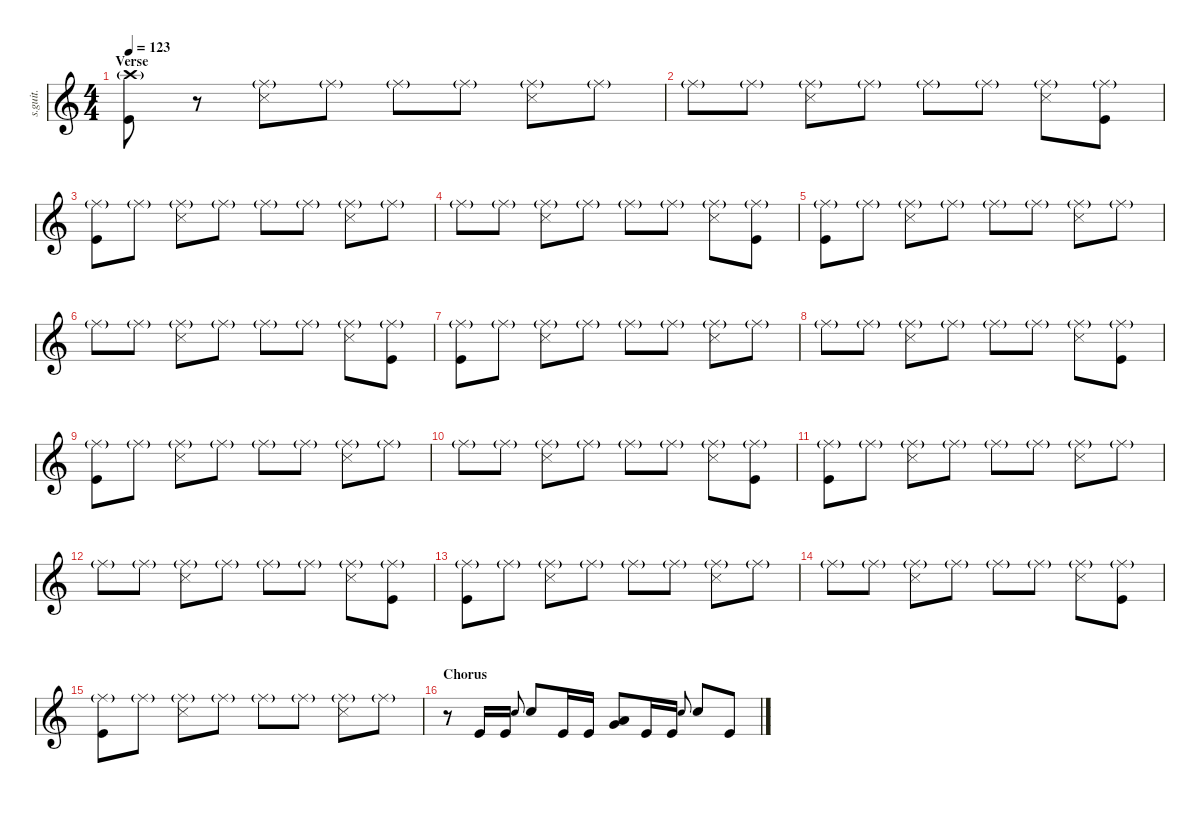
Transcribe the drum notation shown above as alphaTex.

\defaultSystemsLayout 4
\hideDynamics
\bracketExtendMode nobrackets
\track ("Dave Grohl" "s.guit.") {instrument percussion}
\staff {score}
\articulation defaults
\ts (4 4)
\section ("" "Verse")
\tempo 123
\clef g2
\ks c
("Crash high (hit)"{g} "Kick (hit)").8{lyrics (0 "") lyrics (1 "") lyrics (2 "") lyrics (3 "") lyrics (4 "") dy f} r.8 ("Ride (middle)"{g} "Snare (side stick) 3").8{lyrics (0 "") lyrics (1 "") lyrics (2 "") lyrics (3 "") lyrics (4 "")} "Ride (middle)"{g}.8{lyrics (0 "") lyrics (1 "") lyrics (2 "") lyrics (3 "") lyrics (4 "") dy fff} "Ride (middle)"{g}.8{lyrics (0 "") lyrics (1 "") lyrics (2 "") lyrics (3 "") lyrics (4 "")} "Ride (middle)"{g}.8{lyrics (0 "") lyrics (1 "") lyrics (2 "") lyrics (3 "") lyrics (4 "")} ("Ride (middle)"{g} "Snare (side stick) 3").8{lyrics (0 "") lyrics (1 "") lyrics (2 "") lyrics (3 "") lyrics (4 "") dy f} "Ride (middle)"{g}.8{lyrics (0 "") lyrics (1 "") lyrics (2 "") lyrics (3 "") lyrics (4 "") dy fff} |
"Ride (middle)"{g}.8{lyrics (0 "") lyrics (1 "") lyrics (2 "") lyrics (3 "") lyrics (4 "")} "Ride (middle)"{g}.8{lyrics (0 "") lyrics (1 "") lyrics (2 "") lyrics (3 "") lyrics (4 "")} ("Ride (middle)"{g} "Snare (side stick) 3").8{lyrics (0 "") lyrics (1 "") lyrics (2 "") lyrics (3 "") lyrics (4 "") dy f} "Ride (middle)"{g}.8{lyrics (0 "") lyrics (1 "") lyrics (2 "") lyrics (3 "") lyrics (4 "") dy fff} "Ride (middle)"{g}.8{lyrics (0 "") lyrics (1 "") lyrics (2 "") lyrics (3 "") lyrics (4 "")} "Ride (middle)"{g}.8{lyrics (0 "") lyrics (1 "") lyrics (2 "") lyrics (3 "") lyrics (4 "")} ("Ride (middle)"{g} "Snare (side stick) 3").8{lyrics (0 "") lyrics (1 "") lyrics (2 "") lyrics (3 "") lyrics (4 "") dy f} ("Ride (middle)"{g} "Kick (hit)").8{lyrics (0 "") lyrics (1 "") lyrics (2 "") lyrics (3 "") lyrics (4 "")} |
("Ride (middle)"{g} "Kick (hit)").8{lyrics (0 "") lyrics (1 "") lyrics (2 "") lyrics (3 "") lyrics (4 "")} "Ride (middle)"{g}.8{lyrics (0 "") lyrics (1 "") lyrics (2 "") lyrics (3 "") lyrics (4 "") dy fff} ("Ride (middle)"{g} "Snare (side stick) 3").8{lyrics (0 "") lyrics (1 "") lyrics (2 "") lyrics (3 "") lyrics (4 "") dy f} "Ride (middle)"{g}.8{lyrics (0 "") lyrics (1 "") lyrics (2 "") lyrics (3 "") lyrics (4 "") dy fff} "Ride (middle)"{g}.8{lyrics (0 "") lyrics (1 "") lyrics (2 "") lyrics (3 "") lyrics (4 "")} "Ride (middle)"{g}.8{lyrics (0 "") lyrics (1 "") lyrics (2 "") lyrics (3 "") lyrics (4 "")} ("Ride (middle)"{g} "Snare (side stick) 3").8{lyrics (0 "") lyrics (1 "") lyrics (2 "") lyrics (3 "") lyrics (4 "") dy f} "Ride (middle)"{g}.8{lyrics (0 "") lyrics (1 "") lyrics (2 "") lyrics (3 "") lyrics (4 "") dy fff} |
"Ride (middle)"{g}.8{lyrics (0 "") lyrics (1 "") lyrics (2 "") lyrics (3 "") lyrics (4 "")} "Ride (middle)"{g}.8{lyrics (0 "") lyrics (1 "") lyrics (2 "") lyrics (3 "") lyrics (4 "")} ("Ride (middle)"{g} "Snare (side stick) 3").8{lyrics (0 "") lyrics (1 "") lyrics (2 "") lyrics (3 "") lyrics (4 "") dy f} "Ride (middle)"{g}.8{lyrics (0 "") lyrics (1 "") lyrics (2 "") lyrics (3 "") lyrics (4 "") dy fff} "Ride (middle)"{g}.8{lyrics (0 "") lyrics (1 "") lyrics (2 "") lyrics (3 "") lyrics (4 "")} "Ride (middle)"{g}.8{lyrics (0 "") lyrics (1 "") lyrics (2 "") lyrics (3 "") lyrics (4 "")} ("Ride (middle)"{g} "Snare (side stick) 3").8{lyrics (0 "") lyrics (1 "") lyrics (2 "") lyrics (3 "") lyrics (4 "") dy f} ("Ride (middle)"{g} "Kick (hit)").8{lyrics (0 "") lyrics (1 "") lyrics (2 "") lyrics (3 "") lyrics (4 "")} |
("Ride (middle)"{g} "Kick (hit)").8{lyrics (0 "") lyrics (1 "") lyrics (2 "") lyrics (3 "") lyrics (4 "")} "Ride (middle)"{g}.8{lyrics (0 "") lyrics (1 "") lyrics (2 "") lyrics (3 "") lyrics (4 "") dy fff} ("Ride (middle)"{g} "Snare (side stick) 3").8{lyrics (0 "") lyrics (1 "") lyrics (2 "") lyrics (3 "") lyrics (4 "") dy f} "Ride (middle)"{g}.8{lyrics (0 "") lyrics (1 "") lyrics (2 "") lyrics (3 "") lyrics (4 "") dy fff} "Ride (middle)"{g}.8{lyrics (0 "") lyrics (1 "") lyrics (2 "") lyrics (3 "") lyrics (4 "")} "Ride (middle)"{g}.8{lyrics (0 "") lyrics (1 "") lyrics (2 "") lyrics (3 "") lyrics (4 "")} ("Ride (middle)"{g} "Snare (side stick) 3").8{lyrics (0 "") lyrics (1 "") lyrics (2 "") lyrics (3 "") lyrics (4 "") dy f} "Ride (middle)"{g}.8{lyrics (0 "") lyrics (1 "") lyrics (2 "") lyrics (3 "") lyrics (4 "") dy fff} |
"Ride (middle)"{g}.8{lyrics (0 "") lyrics (1 "") lyrics (2 "") lyrics (3 "") lyrics (4 "")} "Ride (middle)"{g}.8{lyrics (0 "") lyrics (1 "") lyrics (2 "") lyrics (3 "") lyrics (4 "")} ("Ride (middle)"{g} "Snare (side stick) 3").8{lyrics (0 "") lyrics (1 "") lyrics (2 "") lyrics (3 "") lyrics (4 "") dy f} "Ride (middle)"{g}.8{lyrics (0 "") lyrics (1 "") lyrics (2 "") lyrics (3 "") lyrics (4 "") dy fff} "Ride (middle)"{g}.8{lyrics (0 "") lyrics (1 "") lyrics (2 "") lyrics (3 "") lyrics (4 "")} "Ride (middle)"{g}.8{lyrics (0 "") lyrics (1 "") lyrics (2 "") lyrics (3 "") lyrics (4 "")} ("Ride (middle)"{g} "Snare (side stick) 3").8{lyrics (0 "") lyrics (1 "") lyrics (2 "") lyrics (3 "") lyrics (4 "") dy f} ("Ride (middle)"{g} "Kick (hit)").8{lyrics (0 "") lyrics (1 "") lyrics (2 "") lyrics (3 "") lyrics (4 "")} |
("Ride (middle)"{g} "Kick (hit)").8{lyrics (0 "") lyrics (1 "") lyrics (2 "") lyrics (3 "") lyrics (4 "")} "Ride (middle)"{g}.8{lyrics (0 "") lyrics (1 "") lyrics (2 "") lyrics (3 "") lyrics (4 "") dy fff} ("Ride (middle)"{g} "Snare (side stick) 3").8{lyrics (0 "") lyrics (1 "") lyrics (2 "") lyrics (3 "") lyrics (4 "") dy f} "Ride (middle)"{g}.8{lyrics (0 "") lyrics (1 "") lyrics (2 "") lyrics (3 "") lyrics (4 "") dy fff} "Ride (middle)"{g}.8{lyrics (0 "") lyrics (1 "") lyrics (2 "") lyrics (3 "") lyrics (4 "")} "Ride (middle)"{g}.8{lyrics (0 "") lyrics (1 "") lyrics (2 "") lyrics (3 "") lyrics (4 "")} ("Ride (middle)"{g} "Snare (side stick) 3").8{lyrics (0 "") lyrics (1 "") lyrics (2 "") lyrics (3 "") lyrics (4 "") dy f} "Ride (middle)"{g}.8{lyrics (0 "") lyrics (1 "") lyrics (2 "") lyrics (3 "") lyrics (4 "") dy fff} |
"Ride (middle)"{g}.8{lyrics (0 "") lyrics (1 "") lyrics (2 "") lyrics (3 "") lyrics (4 "")} "Ride (middle)"{g}.8{lyrics (0 "") lyrics (1 "") lyrics (2 "") lyrics (3 "") lyrics (4 "")} ("Ride (middle)"{g} "Snare (side stick) 3").8{lyrics (0 "") lyrics (1 "") lyrics (2 "") lyrics (3 "") lyrics (4 "") dy f} "Ride (middle)"{g}.8{lyrics (0 "") lyrics (1 "") lyrics (2 "") lyrics (3 "") lyrics (4 "") dy fff} "Ride (middle)"{g}.8{lyrics (0 "") lyrics (1 "") lyrics (2 "") lyrics (3 "") lyrics (4 "")} "Ride (middle)"{g}.8{lyrics (0 "") lyrics (1 "") lyrics (2 "") lyrics (3 "") lyrics (4 "")} ("Ride (middle)"{g} "Snare (side stick) 3").8{lyrics (0 "") lyrics (1 "") lyrics (2 "") lyrics (3 "") lyrics (4 "") dy f} ("Ride (middle)"{g} "Kick (hit)").8{lyrics (0 "") lyrics (1 "") lyrics (2 "") lyrics (3 "") lyrics (4 "")} |
("Ride (middle)"{g} "Kick (hit)").8{lyrics (0 "") lyrics (1 "") lyrics (2 "") lyrics (3 "") lyrics (4 "")} "Ride (middle)"{g}.8{lyrics (0 "") lyrics (1 "") lyrics (2 "") lyrics (3 "") lyrics (4 "") dy fff} ("Ride (middle)"{g} "Snare (side stick) 3").8{lyrics (0 "") lyrics (1 "") lyrics (2 "") lyrics (3 "") lyrics (4 "") dy f} "Ride (middle)"{g}.8{lyrics (0 "") lyrics (1 "") lyrics (2 "") lyrics (3 "") lyrics (4 "") dy fff} "Ride (middle)"{g}.8{lyrics (0 "") lyrics (1 "") lyrics (2 "") lyrics (3 "") lyrics (4 "")} "Ride (middle)"{g}.8{lyrics (0 "") lyrics (1 "") lyrics (2 "") lyrics (3 "") lyrics (4 "")} ("Ride (middle)"{g} "Snare (side stick) 3").8{lyrics (0 "") lyrics (1 "") lyrics (2 "") lyrics (3 "") lyrics (4 "") dy f} "Ride (middle)"{g}.8{lyrics (0 "") lyrics (1 "") lyrics (2 "") lyrics (3 "") lyrics (4 "") dy fff} |
"Ride (middle)"{g}.8{lyrics (0 "") lyrics (1 "") lyrics (2 "") lyrics (3 "") lyrics (4 "")} "Ride (middle)"{g}.8{lyrics (0 "") lyrics (1 "") lyrics (2 "") lyrics (3 "") lyrics (4 "")} ("Ride (middle)"{g} "Snare (side stick) 3").8{lyrics (0 "") lyrics (1 "") lyrics (2 "") lyrics (3 "") lyrics (4 "") dy f} "Ride (middle)"{g}.8{lyrics (0 "") lyrics (1 "") lyrics (2 "") lyrics (3 "") lyrics (4 "") dy fff} "Ride (middle)"{g}.8{lyrics (0 "") lyrics (1 "") lyrics (2 "") lyrics (3 "") lyrics (4 "")} "Ride (middle)"{g}.8{lyrics (0 "") lyrics (1 "") lyrics (2 "") lyrics (3 "") lyrics (4 "")} ("Ride (middle)"{g} "Snare (side stick) 3").8{lyrics (0 "") lyrics (1 "") lyrics (2 "") lyrics (3 "") lyrics (4 "") dy f} ("Ride (middle)"{g} "Kick (hit)").8{lyrics (0 "") lyrics (1 "") lyrics (2 "") lyrics (3 "") lyrics (4 "")} |
("Ride (middle)"{g} "Kick (hit)").8{lyrics (0 "") lyrics (1 "") lyrics (2 "") lyrics (3 "") lyrics (4 "")} "Ride (middle)"{g}.8{lyrics (0 "") lyrics (1 "") lyrics (2 "") lyrics (3 "") lyrics (4 "") dy fff} ("Ride (middle)"{g} "Snare (side stick) 3").8{lyrics (0 "") lyrics (1 "") lyrics (2 "") lyrics (3 "") lyrics (4 "") dy f} "Ride (middle)"{g}.8{lyrics (0 "") lyrics (1 "") lyrics (2 "") lyrics (3 "") lyrics (4 "") dy fff} "Ride (middle)"{g}.8{lyrics (0 "") lyrics (1 "") lyrics (2 "") lyrics (3 "") lyrics (4 "")} "Ride (middle)"{g}.8{lyrics (0 "") lyrics (1 "") lyrics (2 "") lyrics (3 "") lyrics (4 "")} ("Ride (middle)"{g} "Snare (side stick) 3").8{lyrics (0 "") lyrics (1 "") lyrics (2 "") lyrics (3 "") lyrics (4 "") dy f} "Ride (middle)"{g}.8{lyrics (0 "") lyrics (1 "") lyrics (2 "") lyrics (3 "") lyrics (4 "") dy fff} |
"Ride (middle)"{g}.8{lyrics (0 "") lyrics (1 "") lyrics (2 "") lyrics (3 "") lyrics (4 "")} "Ride (middle)"{g}.8{lyrics (0 "") lyrics (1 "") lyrics (2 "") lyrics (3 "") lyrics (4 "")} ("Ride (middle)"{g} "Snare (side stick) 3").8{lyrics (0 "") lyrics (1 "") lyrics (2 "") lyrics (3 "") lyrics (4 "") dy f} "Ride (middle)"{g}.8{lyrics (0 "") lyrics (1 "") lyrics (2 "") lyrics (3 "") lyrics (4 "") dy fff} "Ride (middle)"{g}.8{lyrics (0 "") lyrics (1 "") lyrics (2 "") lyrics (3 "") lyrics (4 "")} "Ride (middle)"{g}.8{lyrics (0 "") lyrics (1 "") lyrics (2 "") lyrics (3 "") lyrics (4 "")} ("Ride (middle)"{g} "Snare (side stick) 3").8{lyrics (0 "") lyrics (1 "") lyrics (2 "") lyrics (3 "") lyrics (4 "") dy f} ("Ride (middle)"{g} "Kick (hit)").8{lyrics (0 "") lyrics (1 "") lyrics (2 "") lyrics (3 "") lyrics (4 "")} |
("Ride (middle)"{g} "Kick (hit)").8{lyrics (0 "") lyrics (1 "") lyrics (2 "") lyrics (3 "") lyrics (4 "")} "Ride (middle)"{g}.8{lyrics (0 "") lyrics (1 "") lyrics (2 "") lyrics (3 "") lyrics (4 "") dy fff} ("Ride (middle)"{g} "Snare (side stick) 3").8{lyrics (0 "") lyrics (1 "") lyrics (2 "") lyrics (3 "") lyrics (4 "") dy f} "Ride (middle)"{g}.8{lyrics (0 "") lyrics (1 "") lyrics (2 "") lyrics (3 "") lyrics (4 "") dy fff} "Ride (middle)"{g}.8{lyrics (0 "") lyrics (1 "") lyrics (2 "") lyrics (3 "") lyrics (4 "")} "Ride (middle)"{g}.8{lyrics (0 "") lyrics (1 "") lyrics (2 "") lyrics (3 "") lyrics (4 "")} ("Ride (middle)"{g} "Snare (side stick) 3").8{lyrics (0 "") lyrics (1 "") lyrics (2 "") lyrics (3 "") lyrics (4 "") dy f} "Ride (middle)"{g}.8{lyrics (0 "") lyrics (1 "") lyrics (2 "") lyrics (3 "") lyrics (4 "") dy fff} |
"Ride (middle)"{g}.8{lyrics (0 "") lyrics (1 "") lyrics (2 "") lyrics (3 "") lyrics (4 "")} "Ride (middle)"{g}.8{lyrics (0 "") lyrics (1 "") lyrics (2 "") lyrics (3 "") lyrics (4 "")} ("Ride (middle)"{g} "Snare (side stick) 3").8{lyrics (0 "") lyrics (1 "") lyrics (2 "") lyrics (3 "") lyrics (4 "") dy f} "Ride (middle)"{g}.8{lyrics (0 "") lyrics (1 "") lyrics (2 "") lyrics (3 "") lyrics (4 "") dy fff} "Ride (middle)"{g}.8{lyrics (0 "") lyrics (1 "") lyrics (2 "") lyrics (3 "") lyrics (4 "")} "Ride (middle)"{g}.8{lyrics (0 "") lyrics (1 "") lyrics (2 "") lyrics (3 "") lyrics (4 "")} ("Ride (middle)"{g} "Snare (side stick) 3").8{lyrics (0 "") lyrics (1 "") lyrics (2 "") lyrics (3 "") lyrics (4 "") dy f} ("Ride (middle)"{g} "Kick (hit)").8{lyrics (0 "") lyrics (1 "") lyrics (2 "") lyrics (3 "") lyrics (4 "")} |
("Ride (middle)"{g} "Kick (hit)").8{lyrics (0 "") lyrics (1 "") lyrics (2 "") lyrics (3 "") lyrics (4 "")} "Ride (middle)"{g}.8{lyrics (0 "") lyrics (1 "") lyrics (2 "") lyrics (3 "") lyrics (4 "") dy fff} ("Ride (middle)"{g} "Snare (side stick) 3").8{lyrics (0 "") lyrics (1 "") lyrics (2 "") lyrics (3 "") lyrics (4 "") dy f} "Ride (middle)"{g}.8{lyrics (0 "") lyrics (1 "") lyrics (2 "") lyrics (3 "") lyrics (4 "") dy fff} "Ride (middle)"{g}.8{lyrics (0 "") lyrics (1 "") lyrics (2 "") lyrics (3 "") lyrics (4 "")} "Ride (middle)"{g}.8{lyrics (0 "") lyrics (1 "") lyrics (2 "") lyrics (3 "") lyrics (4 "")} ("Ride (middle)"{g} "Snare (side stick) 3").8{lyrics (0 "") lyrics (1 "") lyrics (2 "") lyrics (3 "") lyrics (4 "") dy f} "Ride (middle)"{g}.8{lyrics (0 "") lyrics (1 "") lyrics (2 "") lyrics (3 "") lyrics (4 "") dy fff} |
\section ("" "Chorus")
r.8 "Kick (hit)".16{lyrics (0 "") lyrics (1 "") lyrics (2 "") lyrics (3 "") lyrics (4 "") dy ff} "Kick (hit)".16{lyrics (0 "") lyrics (1 "") lyrics (2 "") lyrics (3 "") lyrics (4 "")} "Snare (hit) 2".8{lyrics (0 "") lyrics (1 "") lyrics (2 "") lyrics (3 "") lyrics (4 "") gr onbeat} "Snare (hit) 2".8{lyrics (0 "") lyrics (1 "") lyrics (2 "") lyrics (3 "") lyrics (4 "")} "Kick (hit)".16{lyrics (0 "") lyrics (1 "") lyrics (2 "") lyrics (3 "") lyrics (4 "")} "Kick (hit)".16{lyrics (0 "") lyrics (1 "") lyrics (2 "") lyrics (3 "") lyrics (4 "")} ("Very Low Tom (hit)" "Low Tom (hit)").8{lyrics (0 "") lyrics (1 "") lyrics (2 "") lyrics (3 "") lyrics (4 "")} "Kick (hit)".16{lyrics (0 "") lyrics (1 "") lyrics (2 "") lyrics (3 "") lyrics (4 "")} "Kick (hit)".16{lyrics (0 "") lyrics (1 "") lyrics (2 "") lyrics (3 "") lyrics (4 "")} "Snare (hit) 2".8{lyrics (0 "") lyrics (1 "") lyrics (2 "") lyrics (3 "") lyrics (4 "") gr onbeat} "Snare (hit) 2".8{lyrics (0 "") lyrics (1 "") lyrics (2 "") lyrics (3 "") lyrics (4 "")} "Kick (hit)".8{lyrics (0 "") lyrics (1 "") lyrics (2 "") lyrics (3 "") lyrics (4 "")}
